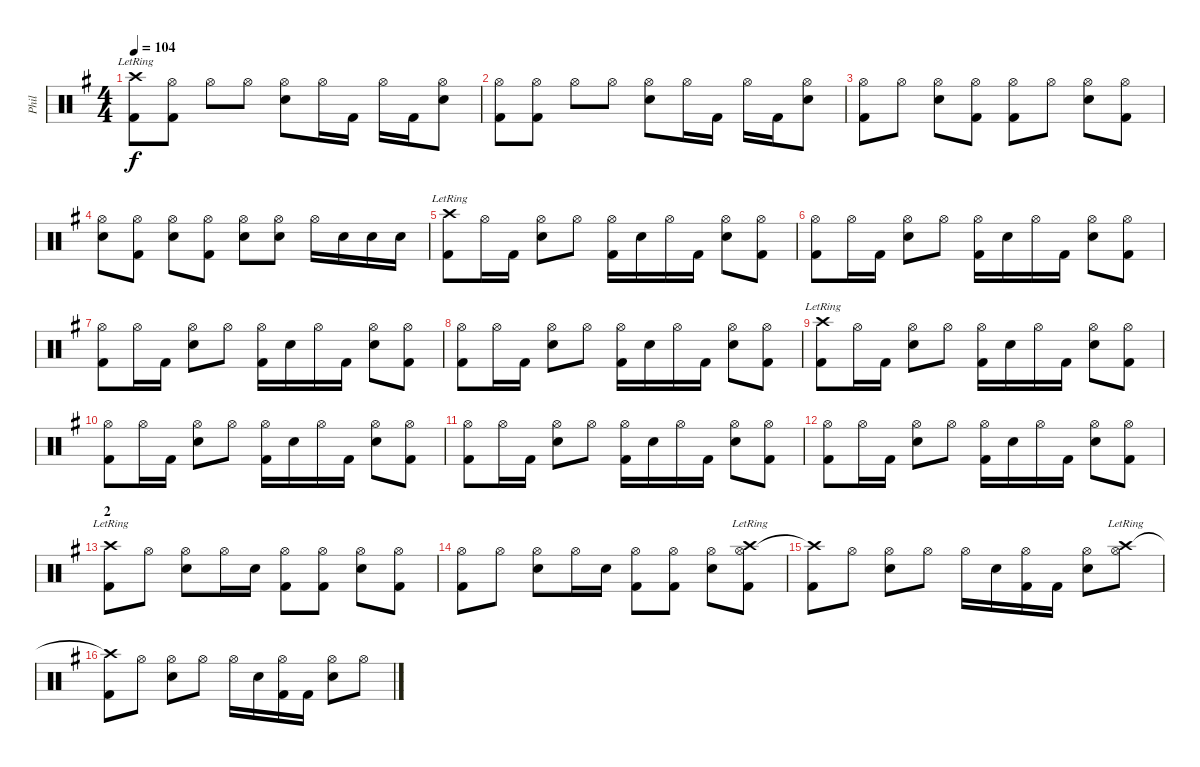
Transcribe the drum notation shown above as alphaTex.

\track ("Phil" "Phil") {instrument percussion}
\staff {score}
\articulation defaults
\ts (4 4)
\tempo 104
\clef neutral
\ks g
("Kick (hit) 2" "Crash high (hit)"{lr}).8{dy f} ("Kick (hit) 2" "Hi-Hat (open)").8 "Hi-Hat (open)".8 "Hi-Hat (open)".8 ("Snare (hit) 2" "Hi-Hat (open)").8 "Hi-Hat (open)".16 "Kick (hit) 2".16 "Hi-Hat (open)".16 "Kick (hit) 2".16 ("Snare (hit) 2" "Hi-Hat (open)").8 |
("Kick (hit) 2" "Hi-Hat (open)").8 ("Kick (hit) 2" "Hi-Hat (open)").8 "Hi-Hat (open)".8 "Hi-Hat (open)".8 ("Snare (hit) 2" "Hi-Hat (open)").8 "Hi-Hat (open)".16 "Kick (hit) 2".16 "Hi-Hat (open)".16 "Kick (hit) 2".16 ("Snare (hit) 2" "Hi-Hat (open)").8 |
("Kick (hit) 2" "Hi-Hat (open)").8 "Hi-Hat (open)".8 ("Snare (hit) 2" "Hi-Hat (open)").8 ("Kick (hit) 2" "Hi-Hat (open)").8 ("Kick (hit) 2" "Hi-Hat (open)").8 "Hi-Hat (open)".8 ("Snare (hit) 2" "Hi-Hat (open)").8 ("Kick (hit) 2" "Hi-Hat (open)").8 |
("Snare (hit) 2" "Hi-Hat (open)").8 ("Kick (hit) 2" "Hi-Hat (open)").8 ("Snare (hit) 2" "Hi-Hat (open)").8 ("Kick (hit) 2" "Hi-Hat (open)").8 ("Snare (hit) 2" "Hi-Hat (open)").8 ("Snare (hit) 2" "Hi-Hat (open)").8 "Hi-Hat (open)".16 "Snare (hit) 2".16 "Snare (hit) 2".16 "Snare (hit) 2".16 |
("Kick (hit) 2" "Crash high (hit)"{lr}).8 "Hi-Hat (open)".16 "Kick (hit) 2".16 ("Snare (hit) 2" "Hi-Hat (open)").8 "Hi-Hat (open)".8 ("Kick (hit) 2" "Hi-Hat (open)").16 "Snare (hit) 2".16 "Hi-Hat (open)".16 "Kick (hit) 2".16 ("Snare (hit) 2" "Hi-Hat (open)").8 ("Kick (hit) 2" "Hi-Hat (open)").8 |
("Kick (hit) 2" "Hi-Hat (open)").8 "Hi-Hat (open)".16 "Kick (hit) 2".16 ("Snare (hit) 2" "Hi-Hat (open)").8 "Hi-Hat (open)".8 ("Kick (hit) 2" "Hi-Hat (open)").16 "Snare (hit) 2".16 "Hi-Hat (open)".16 "Kick (hit) 2".16 ("Snare (hit) 2" "Hi-Hat (open)").8 ("Kick (hit) 2" "Hi-Hat (open)").8 |
("Kick (hit) 2" "Hi-Hat (open)").8 "Hi-Hat (open)".16 "Kick (hit) 2".16 ("Snare (hit) 2" "Hi-Hat (open)").8 "Hi-Hat (open)".8 ("Kick (hit) 2" "Hi-Hat (open)").16 "Snare (hit) 2".16 "Hi-Hat (open)".16 "Kick (hit) 2".16 ("Snare (hit) 2" "Hi-Hat (open)").8 ("Kick (hit) 2" "Hi-Hat (open)").8 |
("Kick (hit) 2" "Hi-Hat (open)").8 "Hi-Hat (open)".16 "Kick (hit) 2".16 ("Snare (hit) 2" "Hi-Hat (open)").8 "Hi-Hat (open)".8 ("Kick (hit) 2" "Hi-Hat (open)").16 "Snare (hit) 2".16 "Hi-Hat (open)".16 "Kick (hit) 2".16 ("Snare (hit) 2" "Hi-Hat (open)").8 ("Kick (hit) 2" "Hi-Hat (open)").8 |
("Kick (hit) 2" "Crash high (hit)"{lr}).8 "Hi-Hat (open)".16 "Kick (hit) 2".16 ("Snare (hit) 2" "Hi-Hat (open)").8 "Hi-Hat (open)".8 ("Kick (hit) 2" "Hi-Hat (open)").16 "Snare (hit) 2".16 "Hi-Hat (open)".16 "Kick (hit) 2".16 ("Snare (hit) 2" "Hi-Hat (open)").8 ("Kick (hit) 2" "Hi-Hat (open)").8 |
("Kick (hit) 2" "Hi-Hat (open)").8 "Hi-Hat (open)".16 "Kick (hit) 2".16 ("Snare (hit) 2" "Hi-Hat (open)").8 "Hi-Hat (open)".8 ("Kick (hit) 2" "Hi-Hat (open)").16 "Snare (hit) 2".16 "Hi-Hat (open)".16 "Kick (hit) 2".16 ("Snare (hit) 2" "Hi-Hat (open)").8 ("Kick (hit) 2" "Hi-Hat (open)").8 |
("Kick (hit) 2" "Hi-Hat (open)").8 "Hi-Hat (open)".16 "Kick (hit) 2".16 ("Snare (hit) 2" "Hi-Hat (open)").8 "Hi-Hat (open)".8 ("Kick (hit) 2" "Hi-Hat (open)").16 "Snare (hit) 2".16 "Hi-Hat (open)".16 "Kick (hit) 2".16 ("Snare (hit) 2" "Hi-Hat (open)").8 ("Kick (hit) 2" "Hi-Hat (open)").8 |
("Kick (hit) 2" "Hi-Hat (open)").8 "Hi-Hat (open)".16 "Kick (hit) 2".16 ("Snare (hit) 2" "Hi-Hat (open)").8 "Hi-Hat (open)".8 ("Kick (hit) 2" "Hi-Hat (open)").16 "Snare (hit) 2".16 "Hi-Hat (open)".16 "Kick (hit) 2".16 ("Snare (hit) 2" "Hi-Hat (open)").8 ("Kick (hit) 2" "Hi-Hat (open)").8 |
\section ("" "2")
("Kick (hit) 2" "Crash high (hit)"{lr}).8 "Hi-Hat (open)".8 ("Snare (hit) 2" "Hi-Hat (open)").8 "Hi-Hat (open)".16 "Snare (hit) 2".16 ("Kick (hit) 2" "Hi-Hat (open)").8 ("Kick (hit) 2" "Hi-Hat (open)").8 ("Snare (hit) 2" "Hi-Hat (open)").8 ("Kick (hit) 2" "Hi-Hat (open)").8 |
("Kick (hit) 2" "Hi-Hat (open)").8 "Hi-Hat (open)".8 ("Snare (hit) 2" "Hi-Hat (open)").8 "Hi-Hat (open)".16 "Snare (hit) 2".16 ("Kick (hit) 2" "Hi-Hat (open)").8 ("Kick (hit) 2" "Hi-Hat (open)").8 ("Snare (hit) 2" "Hi-Hat (open)").8 ("Kick (hit) 2" "Hi-Hat (open)" "Crash high (hit)"{lr}).8 |
("Kick (hit) 2" "Crash high (hit)"{t}).8 "Hi-Hat (open)".8 ("Snare (hit) 2" "Hi-Hat (open)").8 "Hi-Hat (open)".8 "Hi-Hat (open)".16 "Snare (hit) 2".16 ("Kick (hit) 2" "Hi-Hat (open)").16 "Kick (hit) 2".16 ("Snare (hit) 2" "Hi-Hat (open)").8 ("Hi-Hat (open)" "Crash high (hit)"{lr}).8 |
("Kick (hit) 2" "Crash high (hit)"{t}).8 "Hi-Hat (open)".8 ("Snare (hit) 2" "Hi-Hat (open)").8 "Hi-Hat (open)".8 "Hi-Hat (open)".16 "Snare (hit) 2".16 ("Kick (hit) 2" "Hi-Hat (open)").16 "Kick (hit) 2".16 ("Snare (hit) 2" "Hi-Hat (open)").8 "Hi-Hat (open)".8
